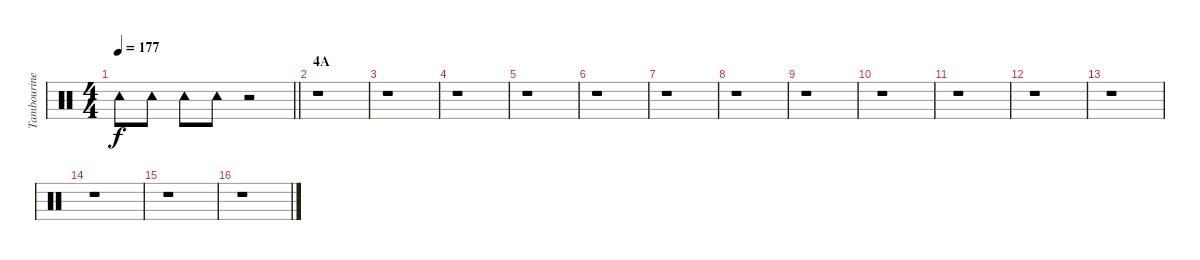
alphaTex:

\track ("Tambourine" "Tambourine") {instrument percussion}
\staff {score}
\articulation defaults
\ts (4 4)
\tempo 177
\clef neutral
\barLineRight lightlight
\ks c "Tambourine (hit)".8{dy f} "Tambourine (hit)".8 "Tambourine (hit)".8 "Tambourine (hit)".8
r.2 |
\section ("" "4A")
r.1 |
r.1 |
r.1 |
r.1 |
r.1 |
r.1 |
r.1 |
r.1 |
r.1 |
r.1 |
r.1 |
r.1 |
r.1 |
r.1 |
r.1
